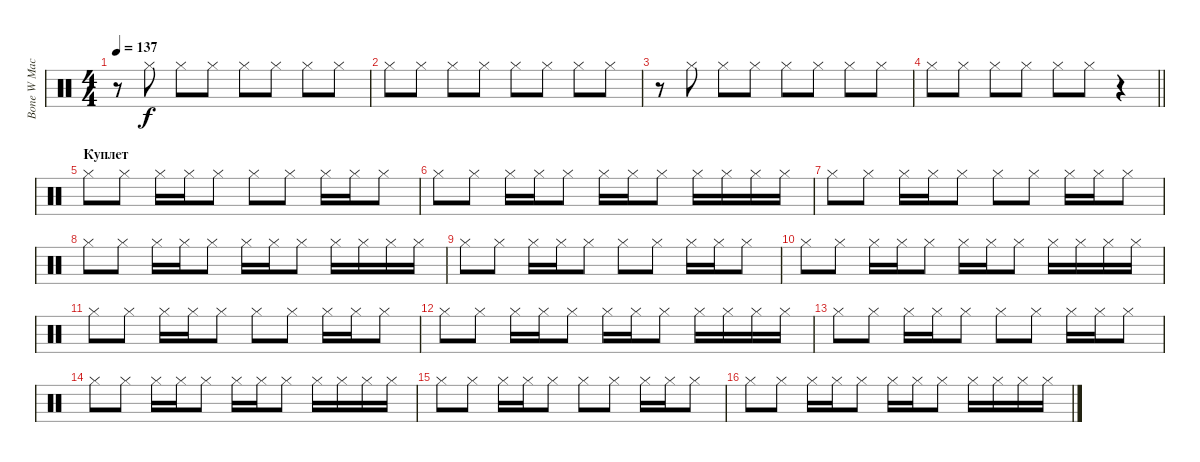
\track ("Bone W Machine Cimbals" "Bone W Mac") {instrument percussion}
\staff {score}
\articulation defaults
\ts (4 4)
\tempo 137
\clef neutral
\ks c
r.8{dy f} "Hi-Hat (closed)".8 "Hi-Hat (closed)".8 "Hi-Hat (closed)".8 "Hi-Hat (closed)".8 "Hi-Hat (closed)".8 "Hi-Hat (closed)".8 "Hi-Hat (closed)".8 |
"Hi-Hat (closed)".8 "Hi-Hat (closed)".8 "Hi-Hat (closed)".8 "Hi-Hat (closed)".8 "Hi-Hat (closed)".8 "Hi-Hat (closed)".8 "Hi-Hat (closed)".8 "Hi-Hat (closed)".8 |
r.8 "Hi-Hat (closed)".8 "Hi-Hat (closed)".8 "Hi-Hat (closed)".8 "Hi-Hat (closed)".8 "Hi-Hat (closed)".8 "Hi-Hat (closed)".8 "Hi-Hat (closed)".8 |
\barLineRight lightlight "Hi-Hat (closed)".8 "Hi-Hat (closed)".8 "Hi-Hat (closed)".8 "Hi-Hat (closed)".8 "Hi-Hat (closed)".8 "Hi-Hat (closed)".8
r.4 |
\section ("" "Куплет")
"Hi-Hat (closed)".8 "Hi-Hat (closed)".8 "Hi-Hat (closed)".16 "Hi-Hat (closed)".16 "Hi-Hat (closed)".8 "Hi-Hat (closed)".8 "Hi-Hat (closed)".8 "Hi-Hat (closed)".16 "Hi-Hat (closed)".16 "Hi-Hat (closed)".8 |
"Hi-Hat (closed)".8 "Hi-Hat (closed)".8 "Hi-Hat (closed)".16 "Hi-Hat (closed)".16 "Hi-Hat (closed)".8 "Hi-Hat (closed)".16 "Hi-Hat (closed)".16 "Hi-Hat (closed)".8 "Hi-Hat (closed)".16 "Hi-Hat (closed)".16 "Hi-Hat (closed)".16 "Hi-Hat (closed)".16 |
"Hi-Hat (closed)".8 "Hi-Hat (closed)".8 "Hi-Hat (closed)".16 "Hi-Hat (closed)".16 "Hi-Hat (closed)".8 "Hi-Hat (closed)".8 "Hi-Hat (closed)".8 "Hi-Hat (closed)".16 "Hi-Hat (closed)".16 "Hi-Hat (closed)".8 |
"Hi-Hat (closed)".8 "Hi-Hat (closed)".8 "Hi-Hat (closed)".16 "Hi-Hat (closed)".16 "Hi-Hat (closed)".8 "Hi-Hat (closed)".16 "Hi-Hat (closed)".16 "Hi-Hat (closed)".8 "Hi-Hat (closed)".16 "Hi-Hat (closed)".16 "Hi-Hat (closed)".16 "Hi-Hat (closed)".16 |
"Hi-Hat (closed)".8 "Hi-Hat (closed)".8 "Hi-Hat (closed)".16 "Hi-Hat (closed)".16 "Hi-Hat (closed)".8 "Hi-Hat (closed)".8 "Hi-Hat (closed)".8 "Hi-Hat (closed)".16 "Hi-Hat (closed)".16 "Hi-Hat (closed)".8 |
"Hi-Hat (closed)".8 "Hi-Hat (closed)".8 "Hi-Hat (closed)".16 "Hi-Hat (closed)".16 "Hi-Hat (closed)".8 "Hi-Hat (closed)".16 "Hi-Hat (closed)".16 "Hi-Hat (closed)".8 "Hi-Hat (closed)".16 "Hi-Hat (closed)".16 "Hi-Hat (closed)".16 "Hi-Hat (closed)".16 |
"Hi-Hat (closed)".8 "Hi-Hat (closed)".8 "Hi-Hat (closed)".16 "Hi-Hat (closed)".16 "Hi-Hat (closed)".8 "Hi-Hat (closed)".8 "Hi-Hat (closed)".8 "Hi-Hat (closed)".16 "Hi-Hat (closed)".16 "Hi-Hat (closed)".8 |
"Hi-Hat (closed)".8 "Hi-Hat (closed)".8 "Hi-Hat (closed)".16 "Hi-Hat (closed)".16 "Hi-Hat (closed)".8 "Hi-Hat (closed)".16 "Hi-Hat (closed)".16 "Hi-Hat (closed)".8 "Hi-Hat (closed)".16 "Hi-Hat (closed)".16 "Hi-Hat (closed)".16 "Hi-Hat (closed)".16 |
"Hi-Hat (closed)".8 "Hi-Hat (closed)".8 "Hi-Hat (closed)".16 "Hi-Hat (closed)".16 "Hi-Hat (closed)".8 "Hi-Hat (closed)".8 "Hi-Hat (closed)".8 "Hi-Hat (closed)".16 "Hi-Hat (closed)".16 "Hi-Hat (closed)".8 |
"Hi-Hat (closed)".8 "Hi-Hat (closed)".8 "Hi-Hat (closed)".16 "Hi-Hat (closed)".16 "Hi-Hat (closed)".8 "Hi-Hat (closed)".16 "Hi-Hat (closed)".16 "Hi-Hat (closed)".8 "Hi-Hat (closed)".16 "Hi-Hat (closed)".16 "Hi-Hat (closed)".16 "Hi-Hat (closed)".16 |
"Hi-Hat (closed)".8 "Hi-Hat (closed)".8 "Hi-Hat (closed)".16 "Hi-Hat (closed)".16 "Hi-Hat (closed)".8 "Hi-Hat (closed)".8 "Hi-Hat (closed)".8 "Hi-Hat (closed)".16 "Hi-Hat (closed)".16 "Hi-Hat (closed)".8 |
"Hi-Hat (closed)".8 "Hi-Hat (closed)".8 "Hi-Hat (closed)".16 "Hi-Hat (closed)".16 "Hi-Hat (closed)".8 "Hi-Hat (closed)".16 "Hi-Hat (closed)".16 "Hi-Hat (closed)".8 "Hi-Hat (closed)".16 "Hi-Hat (closed)".16 "Hi-Hat (closed)".16 "Hi-Hat (closed)".16
